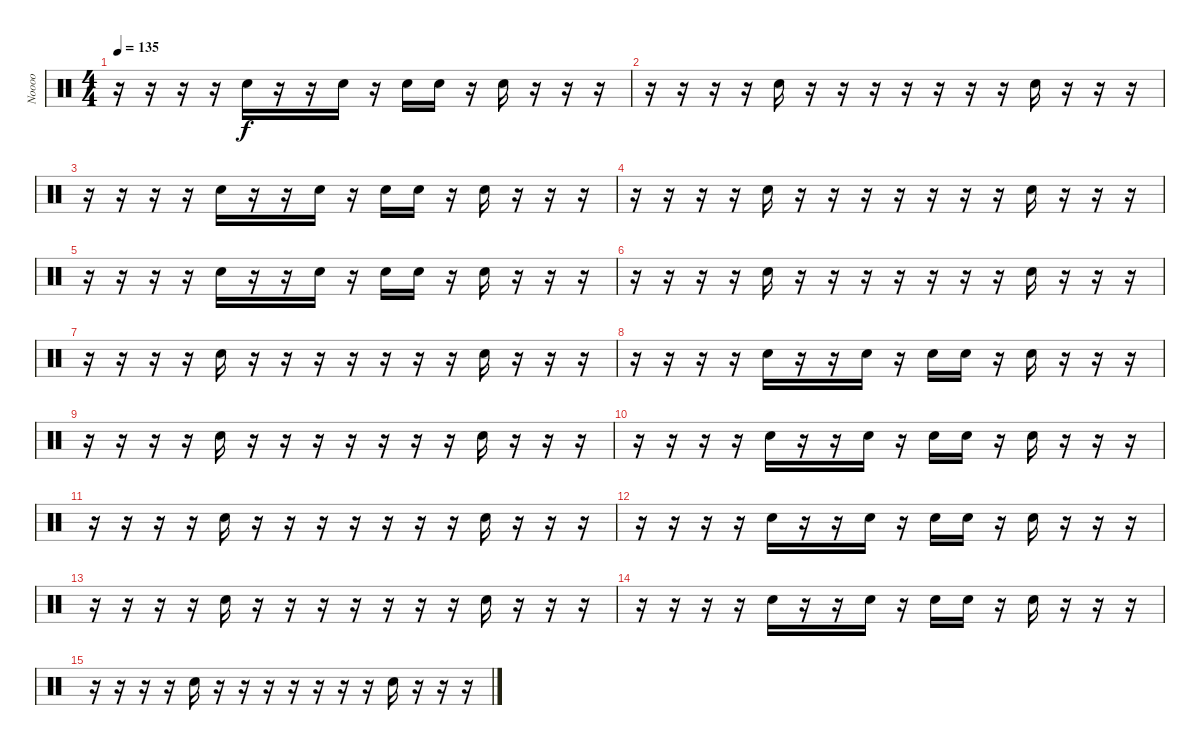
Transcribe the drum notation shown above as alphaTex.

\track ("Noooo" "Noooo") {instrument percussion}
\staff {score}
\articulation defaults
\ts (4 4)
\tempo 135
\clef neutral
\ks c
r.16{dy f} r.16 r.16 r.16 "Hand Clap (hit)".16 r.16 r.16 "Hand Clap (hit)".16 r.16 "Hand Clap (hit)".16 "Hand Clap (hit)".16 r.16 "Hand Clap (hit)".16 r.16 r.16 r.16 |
r.16 r.16 r.16 r.16 "Hand Clap (hit)".16 r.16 r.16 r.16 r.16 r.16 r.16 r.16 "Hand Clap (hit)".16 r.16 r.16 r.16 |
r.16 r.16 r.16 r.16 "Hand Clap (hit)".16 r.16 r.16 "Hand Clap (hit)".16 r.16 "Hand Clap (hit)".16 "Hand Clap (hit)".16 r.16 "Hand Clap (hit)".16 r.16 r.16 r.16 |
r.16 r.16 r.16 r.16 "Hand Clap (hit)".16 r.16 r.16 r.16 r.16 r.16 r.16 r.16 "Hand Clap (hit)".16 r.16 r.16 r.16 |
r.16 r.16 r.16 r.16 "Hand Clap (hit)".16 r.16 r.16 "Hand Clap (hit)".16 r.16 "Hand Clap (hit)".16 "Hand Clap (hit)".16 r.16 "Hand Clap (hit)".16 r.16 r.16 r.16 |
r.16 r.16 r.16 r.16 "Hand Clap (hit)".16 r.16 r.16 r.16 r.16 r.16 r.16 r.16 "Hand Clap (hit)".16 r.16 r.16 r.16 |
r.16 r.16 r.16 r.16 "Hand Clap (hit)".16 r.16 r.16 r.16 r.16 r.16 r.16 r.16 "Hand Clap (hit)".16 r.16 r.16 r.16 |
r.16 r.16 r.16 r.16 "Hand Clap (hit)".16 r.16 r.16 "Hand Clap (hit)".16 r.16 "Hand Clap (hit)".16 "Hand Clap (hit)".16 r.16 "Hand Clap (hit)".16 r.16 r.16 r.16 |
r.16 r.16 r.16 r.16 "Hand Clap (hit)".16 r.16 r.16 r.16 r.16 r.16 r.16 r.16 "Hand Clap (hit)".16 r.16 r.16 r.16 |
r.16 r.16 r.16 r.16 "Hand Clap (hit)".16 r.16 r.16 "Hand Clap (hit)".16 r.16 "Hand Clap (hit)".16 "Hand Clap (hit)".16 r.16 "Hand Clap (hit)".16 r.16 r.16 r.16 |
r.16 r.16 r.16 r.16 "Hand Clap (hit)".16 r.16 r.16 r.16 r.16 r.16 r.16 r.16 "Hand Clap (hit)".16 r.16 r.16 r.16 |
r.16 r.16 r.16 r.16 "Hand Clap (hit)".16 r.16 r.16 "Hand Clap (hit)".16 r.16 "Hand Clap (hit)".16 "Hand Clap (hit)".16 r.16 "Hand Clap (hit)".16 r.16 r.16 r.16 |
r.16 r.16 r.16 r.16 "Hand Clap (hit)".16 r.16 r.16 r.16 r.16 r.16 r.16 r.16 "Hand Clap (hit)".16 r.16 r.16 r.16 |
r.16 r.16 r.16 r.16 "Hand Clap (hit)".16 r.16 r.16 "Hand Clap (hit)".16 r.16 "Hand Clap (hit)".16 "Hand Clap (hit)".16 r.16 "Hand Clap (hit)".16 r.16 r.16 r.16 |
r.16 r.16 r.16 r.16 "Hand Clap (hit)".16 r.16 r.16 r.16 r.16 r.16 r.16 r.16 "Hand Clap (hit)".16 r.16 r.16 r.16
